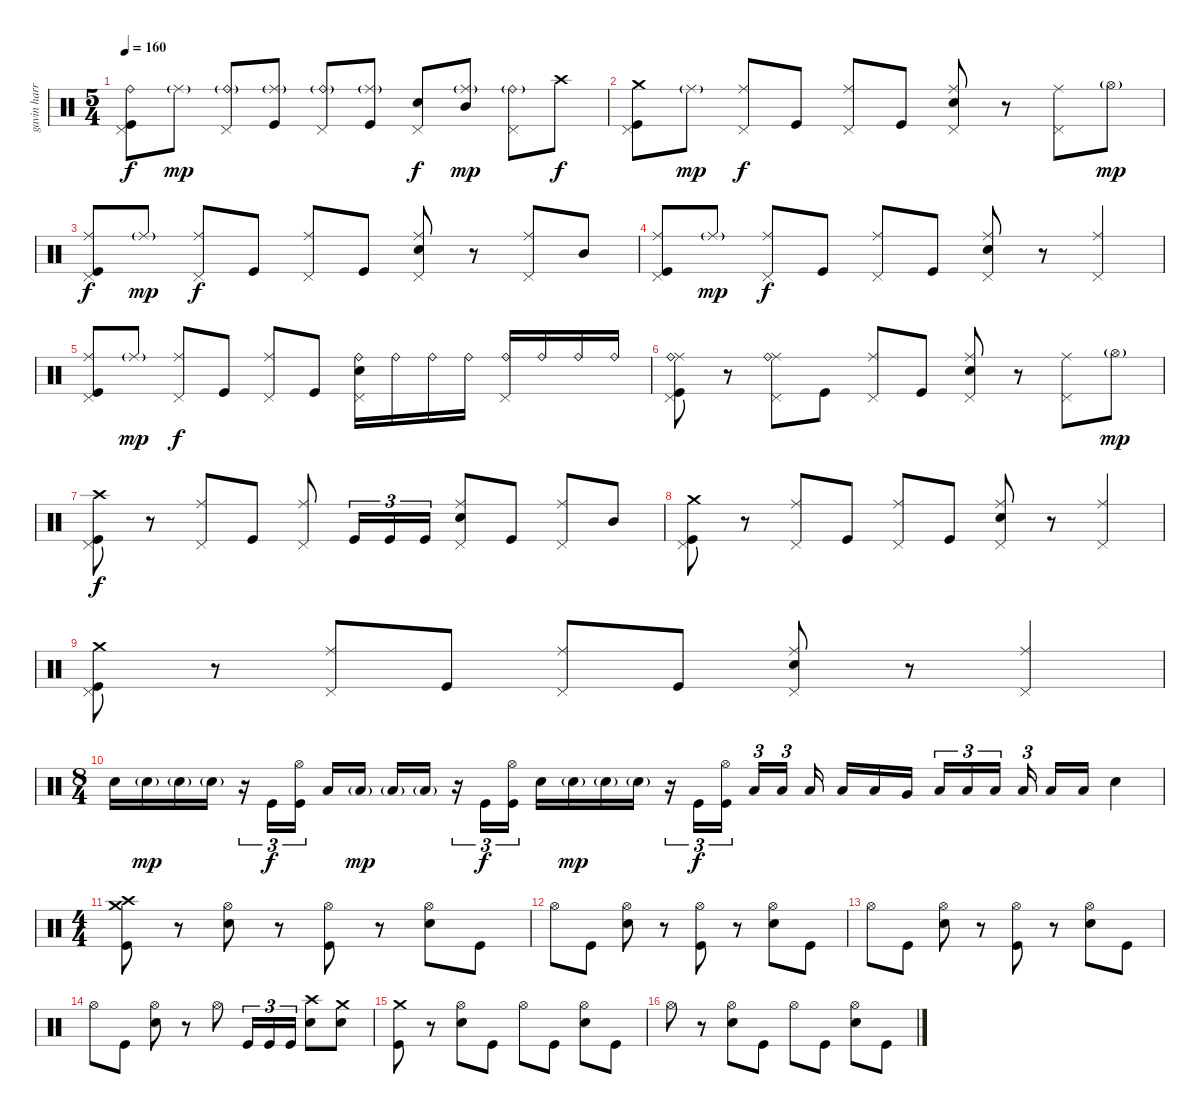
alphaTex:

\track ("gavin harrison ( drum ) " "gavin harr") {instrument percussion}
\staff {score}
\articulation defaults
\ts (5 4)
\tempo 160
\clef neutral
\ks c
("Ride (bell)" "Pedal Hi-Hat (hit)" "Kick (hit)").8{dy f} "Ride (middle)"{g}.8{dy mp} ("Ride (bell)"{g} "Pedal Hi-Hat (hit)").8 ("Ride (middle)"{g} "Kick (hit)").8 ("Ride (bell)"{g} "Pedal Hi-Hat (hit)").8 ("Ride (middle)"{g} "Kick (hit)").8 ("Pedal Hi-Hat (hit)" "Snare (hit) 2").8{dy f} ("Ride (middle)"{g} "Mid Tom (hit)").8{dy mp} ("Ride (bell)"{g} "Pedal Hi-Hat (hit)").8 "Crash high (hit)".8{dy f} |
("Crash medium (hit)" "Pedal Hi-Hat (hit)" "Kick (hit)").8 "Ride (middle)"{g}.8{dy mp} ("Ride (middle)" "Pedal Hi-Hat (hit)").8{dy f} "Kick (hit)".8 ("Ride (middle)" "Pedal Hi-Hat (hit)").8 "Kick (hit)".8 ("Ride (middle)" "Pedal Hi-Hat (hit)" "Snare (hit) 2").8 r.8 ("Ride (middle)" "Pedal Hi-Hat (hit)").8 "Hi-Hat (open)"{g}.8{dy mp} |
("Ride (middle)" "Pedal Hi-Hat (hit)" "Kick (hit)").8{dy f} "Ride (middle)"{g}.8{dy mp} ("Ride (middle)" "Pedal Hi-Hat (hit)").8{dy f} "Kick (hit)".8 ("Ride (middle)" "Pedal Hi-Hat (hit)").8 "Kick (hit)".8 ("Ride (middle)" "Pedal Hi-Hat (hit)" "Snare (hit) 2").8 r.8 ("Ride (middle)" "Pedal Hi-Hat (hit)").8 "Mid Tom (hit)".8 |
("Ride (middle)" "Pedal Hi-Hat (hit)" "Kick (hit)").8 "Ride (middle)"{g}.8{dy mp} ("Ride (middle)" "Pedal Hi-Hat (hit)").8{dy f} "Kick (hit)".8 ("Ride (middle)" "Pedal Hi-Hat (hit)").8 "Kick (hit)".8 ("Ride (middle)" "Pedal Hi-Hat (hit)" "Snare (hit) 2").8 r.8 ("Ride (middle)" "Pedal Hi-Hat (hit)").4 |
("Ride (middle)" "Pedal Hi-Hat (hit)" "Kick (hit)").8 "Ride (middle)"{g}.8{dy mp} ("Ride (middle)" "Pedal Hi-Hat (hit)").8{dy f} "Kick (hit)".8 ("Ride (middle)" "Pedal Hi-Hat (hit)").8 "Kick (hit)".8 ("Ride (bell)" "Pedal Hi-Hat (hit)" "Snare (hit) 2").16 "Ride (bell)".16 "Ride (bell)".16 "Ride (bell)".16 ("Ride (bell)" "Pedal Hi-Hat (hit)").16 "Ride (bell)".16 "Ride (bell)".16 "Ride (bell)".16 |
("Ride (middle)" "Ride (bell)" "Pedal Hi-Hat (hit)" "Kick (hit)").8 r.8 ("Ride (middle)" "Ride (bell)" "Pedal Hi-Hat (hit)").8 "Kick (hit)".8 ("Ride (middle)" "Pedal Hi-Hat (hit)").8 "Kick (hit)".8 ("Ride (middle)" "Pedal Hi-Hat (hit)" "Snare (hit) 2").8 r.8 ("Ride (middle)" "Pedal Hi-Hat (hit)").8 "Hi-Hat (open)"{g}.8{dy mp} |
("Crash high (hit)" "Pedal Hi-Hat (hit)" "Kick (hit)").8{dy f} r.8 ("Ride (middle)" "Pedal Hi-Hat (hit)").8 "Kick (hit)".8 ("Ride (middle)" "Pedal Hi-Hat (hit)").8 "Kick (hit)".16{tu (3 2)} "Kick (hit)".16{tu (3 2)} "Kick (hit)".16{tu (3 2)} ("Ride (middle)" "Pedal Hi-Hat (hit)" "Snare (hit) 2").8 "Kick (hit)".8 ("Ride (middle)" "Pedal Hi-Hat (hit)").8 "Mid Tom (hit)".8 |
("Crash medium (hit)" "Pedal Hi-Hat (hit)" "Kick (hit)").8 r.8 ("Ride (middle)" "Pedal Hi-Hat (hit)").8 "Kick (hit)".8 ("Ride (middle)" "Pedal Hi-Hat (hit)").8 "Kick (hit)".8 ("Ride (middle)" "Pedal Hi-Hat (hit)" "Snare (hit) 2").8 r.8 ("Ride (middle)" "Pedal Hi-Hat (hit)").4 |
("Crash medium (hit)" "Pedal Hi-Hat (hit)" "Kick (hit)").8 r.8 ("Ride (middle)" "Pedal Hi-Hat (hit)").8 "Kick (hit)".8 ("Ride (middle)" "Pedal Hi-Hat (hit)").8 "Kick (hit)".8 ("Ride (middle)" "Pedal Hi-Hat (hit)" "Snare (hit) 2").8 r.8 ("Ride (middle)" "Pedal Hi-Hat (hit)").4 |
\ts (8 4)
"Snare (hit) 2".16 "Snare (hit) 2"{g}.16{dy mp} "Snare (hit) 2"{g}.16 "Snare (hit) 2"{g}.16 r.16{tu (3 2)} "Kick (hit)".16{tu (3 2) dy f} ("Hi-Hat (open)" "Kick (hit)").16{tu (3 2) beam splitsecondary} "Low Floor Tom (hit)".16 "Low Floor Tom (hit)"{g}.16{dy mp} "Low Floor Tom (hit)"{g}.16 "Low Floor Tom (hit)"{g}.16 r.16{tu (3 2)} "Kick (hit)".16{tu (3 2) dy f} ("Hi-Hat (open)" "Kick (hit)").16{tu (3 2)} "Snare (hit) 2".16 "Snare (hit) 2"{g}.16{dy mp} "Snare (hit) 2"{g}.16 "Snare (hit) 2"{g}.16 r.16{tu (3 2)} "Kick (hit)".16{tu (3 2) dy f} ("Hi-Hat (open)" "Kick (hit)").16{tu (3 2) beam splitsecondary} "Low Floor Tom (hit)".16{tu (3 2)} "Low Floor Tom (hit)".16{tu (3 2) beam splitsecondary} "Low Floor Tom (hit)".16 "Low Floor Tom (hit)".16 "Low Floor Tom (hit)".16 "Very Low Tom (hit)".16{beam splitsecondary} "Low Tom (hit)".16{tu (3 2)} "Low Tom (hit)".16{tu (3 2)} "Low Tom (hit)".16{tu (3 2) beam splitsecondary} "Low Tom (hit)".16{tu (3 2) beam splitsecondary} "Low Tom (hit)".16 "Low Tom (hit)".16 "Snare (hit) 2".4 |
\ts (4 4)
("Crash medium (hit)" "Crash high (hit)" "Kick (hit)").8 r.8 ("Hi-Hat (open)" "Snare (hit) 2").8 r.8 ("Hi-Hat (open)" "Kick (hit)").8 r.8 ("Hi-Hat (open)" "Snare (hit) 2").8 "Kick (hit)".8 |
"Hi-Hat (open)".8 "Kick (hit)".8 ("Hi-Hat (open)" "Snare (hit) 2").8 r.8 ("Hi-Hat (open)" "Kick (hit)").8 r.8 ("Hi-Hat (open)" "Snare (hit) 2").8 "Kick (hit)".8 |
"Hi-Hat (open)".8 "Kick (hit)".8 ("Hi-Hat (open)" "Snare (hit) 2").8 r.8 ("Hi-Hat (open)" "Kick (hit)").8 r.8 ("Hi-Hat (open)" "Snare (hit) 2").8 "Kick (hit)".8 |
"Hi-Hat (open)".8 "Kick (hit)".8 ("Hi-Hat (open)" "Snare (hit) 2").8 r.8 "Hi-Hat (open)".8 "Kick (hit)".16{tu (3 2)} "Kick (hit)".16{tu (3 2)} "Kick (hit)".16{tu (3 2)} ("Crash high (hit)" "Snare (hit) 2").8 ("Crash medium (hit)" "Snare (hit) 2").8 |
("Crash medium (hit)" "Kick (hit)").8 r.8 ("Hi-Hat (open)" "Snare (hit) 2").8 "Kick (hit)".8 "Hi-Hat (open)".8 "Kick (hit)".8 ("Hi-Hat (open)" "Snare (hit) 2").8 "Kick (hit)".8 |
"Hi-Hat (open)".8 r.8 ("Hi-Hat (open)" "Snare (hit) 2").8 "Kick (hit)".8 "Hi-Hat (open)".8 "Kick (hit)".8 ("Hi-Hat (open)" "Snare (hit) 2").8 "Kick (hit)".8
